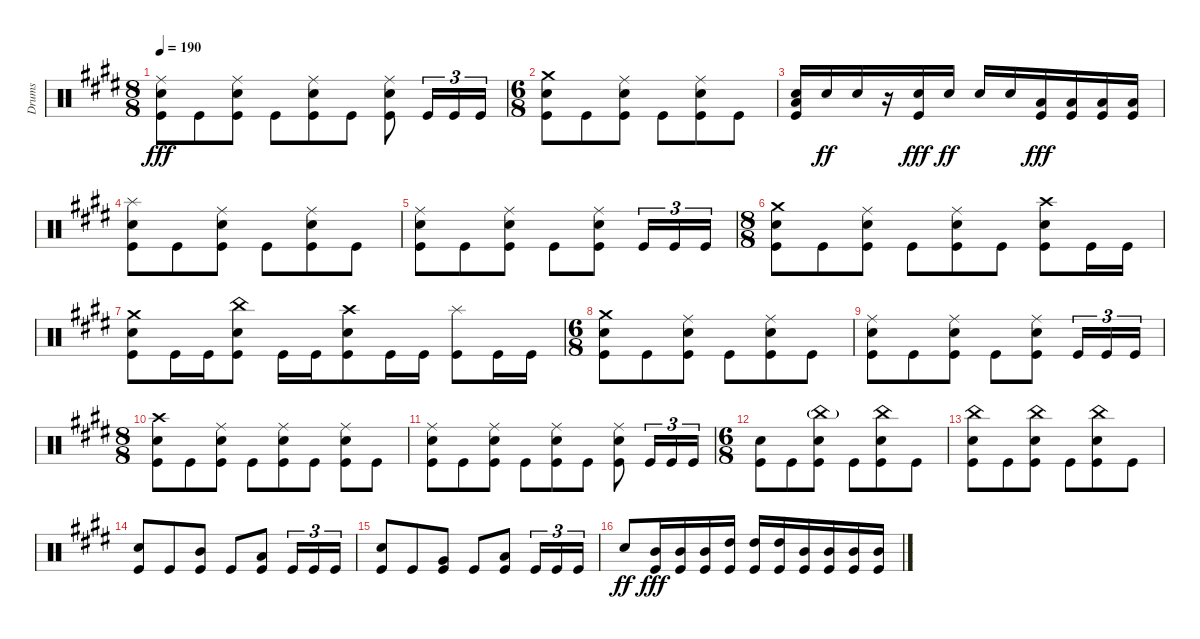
\track ("Drums" "Drums") {instrument percussion}
\staff {score}
\articulation defaults
\ts (8 8)
\tempo 190
\clef neutral
\ks c#minor
("Ride (middle)" "Snare (hit) 2" "Kick (hit)").8{dy fff} "Kick (hit)".8 ("Ride (middle)" "Snare (hit) 2" "Kick (hit)").8 "Kick (hit)".8 ("Ride (middle)" "Snare (hit) 2" "Kick (hit)").8 "Kick (hit)".8 ("Ride (middle)" "Snare (hit) 2" "Kick (hit)").8 "Kick (hit)".16{tu (3 2)} "Kick (hit)".16{tu (3 2)} "Kick (hit)".16{tu (3 2)} |
\ts (6 8)
("Crash medium (hit)" "Snare (hit) 2" "Kick (hit)").8 "Kick (hit)".8 ("Ride (middle)" "Snare (hit) 2" "Kick (hit)").8 "Kick (hit)".8 ("Ride (middle)" "Snare (hit) 2" "Kick (hit)").8 "Kick (hit)".8 |
("Low Floor Tom (hit)" "Snare (hit) 2" "Kick (hit)").16 "Snare (hit) 2".16{dy ff} "Snare (hit) 2".16 r.16 ("Snare (hit) 2" "Kick (hit)").16{dy fff} "Snare (hit) 2".16{dy ff} "Snare (hit) 2".16 "Snare (hit) 2".16 ("Low Floor Tom (hit)" "Kick (hit)").16{dy fff} ("Low Floor Tom (hit)" "Kick (hit)").16 ("Low Floor Tom (hit)" "Kick (hit)").16 ("Low Floor Tom (hit)" "Kick (hit)").16 |
("Splash (hit)" "Snare (hit) 2" "Kick (hit)").8 "Kick (hit)".8 ("Ride (middle)" "Snare (hit) 2" "Kick (hit)").8 "Kick (hit)".8 ("Ride (middle)" "Snare (hit) 2" "Kick (hit)").8 "Kick (hit)".8 |
("Ride (middle)" "Snare (hit) 2" "Kick (hit)").8 "Kick (hit)".8 ("Ride (middle)" "Snare (hit) 2" "Kick (hit)").8 "Kick (hit)".8 ("Ride (middle)" "Snare (hit) 2" "Kick (hit)").8 "Kick (hit)".16{tu (3 2)} "Kick (hit)".16{tu (3 2)} "Kick (hit)".16{tu (3 2)} |
\ts (8 8)
("Crash medium (hit)" "Snare (hit) 2" "Kick (hit)").8 "Kick (hit)".8 ("Ride (middle)" "Snare (hit) 2" "Kick (hit)").8 "Kick (hit)".8 ("Ride (middle)" "Snare (hit) 2" "Kick (hit)").8 "Kick (hit)".8 ("Crash high (hit)" "Snare (hit) 2" "Kick (hit)").8 "Kick (hit)".16 "Kick (hit)".16 |
("Crash medium (hit)" "Snare (hit) 2" "Kick (hit)").8 "Kick (hit)".16 "Kick (hit)".16 ("China (hit)" "Snare (hit) 2" "Kick (hit)").8 "Kick (hit)".16 "Kick (hit)".16 ("Crash high (hit)" "Snare (hit) 2" "Kick (hit)").8 "Kick (hit)".16 "Kick (hit)".16 ("Splash (hit)" "Kick (hit)").8 "Kick (hit)".16 "Kick (hit)".16 |
\ts (6 8)
("Crash medium (hit)" "Snare (hit) 2" "Kick (hit)").8 "Kick (hit)".8 ("Ride (middle)" "Snare (hit) 2" "Kick (hit)").8 "Kick (hit)".8 ("Ride (middle)" "Snare (hit) 2" "Kick (hit)").8 "Kick (hit)".8 |
("Ride (middle)" "Snare (hit) 2" "Kick (hit)").8 "Kick (hit)".8 ("Ride (middle)" "Snare (hit) 2" "Kick (hit)").8 "Kick (hit)".8 ("Ride (middle)" "Snare (hit) 2" "Kick (hit)").8 "Kick (hit)".16{tu (3 2)} "Kick (hit)".16{tu (3 2)} "Kick (hit)".16{tu (3 2)} |
\ts (8 8)
("Crash high (hit)" "Snare (hit) 2" "Kick (hit)").8 "Kick (hit)".8 ("Ride (middle)" "Snare (hit) 2" "Kick (hit)").8 "Kick (hit)".8 ("Ride (middle)" "Snare (hit) 2" "Kick (hit)").8 "Kick (hit)".8 ("Ride (middle)" "Snare (hit) 2" "Kick (hit)").8 "Kick (hit)".8 |
("Ride (middle)" "Snare (hit) 2" "Kick (hit)").8 "Kick (hit)".8 ("Ride (middle)" "Snare (hit) 2" "Kick (hit)").8 "Kick (hit)".8 ("Ride (middle)" "Snare (hit) 2" "Kick (hit)").8 "Kick (hit)".8 ("Ride (middle)" "Snare (hit) 2" "Kick (hit)").8 "Kick (hit)".16{tu (3 2)} "Kick (hit)".16{tu (3 2)} "Kick (hit)".16{tu (3 2)} |
\ts (6 8)
("Snare (hit) 2" "Kick (hit)").8 "Kick (hit)".8 ("China (hit)"{g} "Snare (hit) 2" "Kick (hit)").8 "Kick (hit)".8 ("China (hit)" "Snare (hit) 2" "Kick (hit)").8 "Kick (hit)".8 |
("China (hit)" "Snare (hit) 2" "Kick (hit)").8 "Kick (hit)".8 ("China (hit)" "Snare (hit) 2" "Kick (hit)").8 "Kick (hit)".8 ("China (hit)" "Snare (hit) 2" "Kick (hit)").8 "Kick (hit)".8 |
("Snare (hit) 2" "Kick (hit)").8 "Kick (hit)".8 ("Mid Tom (hit)" "Kick (hit)").8 "Kick (hit)".8 ("Low Tom (hit)" "Kick (hit)").8 "Kick (hit)".16{tu (3 2)} "Kick (hit)".16{tu (3 2)} "Kick (hit)".16{tu (3 2)} |
("Snare (hit) 2" "Kick (hit)").8 "Kick (hit)".8 ("Very Low Tom (hit)" "Kick (hit)").8 "Kick (hit)".8 ("Low Floor Tom (hit)" "Kick (hit)").8 "Kick (hit)".16{tu (3 2)} "Kick (hit)".16{tu (3 2)} "Kick (hit)".16{tu (3 2)} |
"Snare (hit) 2".8{dy ff} ("Mid Tom (hit)" "Kick (hit)").16{dy fff} ("Mid Tom (hit)" "Kick (hit)").16 ("Mid Tom (hit)" "Kick (hit)").16 ("High Tom (hit)" "Kick (hit)").16 ("High Tom (hit)" "Kick (hit)").16 ("High Tom (hit)" "Kick (hit)").16 ("Mid Tom (hit)" "Kick (hit)").16 ("Mid Tom (hit)" "Kick (hit)").16 ("Mid Tom (hit)" "Kick (hit)").16 ("Mid Tom (hit)" "Kick (hit)").16
